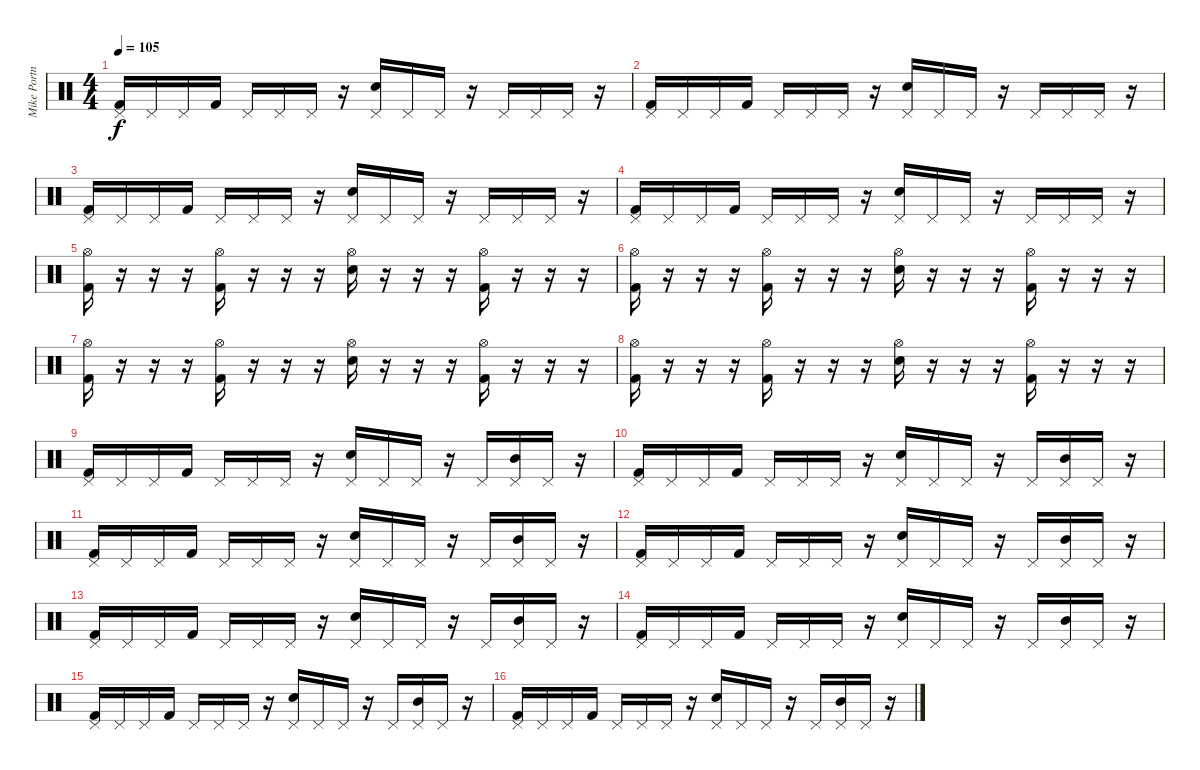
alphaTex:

\track ("Mike Portnoy" "Mike Portn") {instrument percussion}
\staff {score}
\articulation defaults
\ts (4 4)
\tempo 105
\clef neutral
\ks c
("Pedal Hi-Hat (hit)" "Kick (hit) 2").16{dy f} "Pedal Hi-Hat (hit)".16 "Pedal Hi-Hat (hit)".16 "Kick (hit) 2".16 "Pedal Hi-Hat (hit)".16 "Pedal Hi-Hat (hit)".16 "Pedal Hi-Hat (hit)".16 r.16 ("Pedal Hi-Hat (hit)" "Electric Snare (hit)").16 "Pedal Hi-Hat (hit)".16 "Pedal Hi-Hat (hit)".16 r.16 "Pedal Hi-Hat (hit)".16 "Pedal Hi-Hat (hit)".16 "Pedal Hi-Hat (hit)".16 r.16 |
("Pedal Hi-Hat (hit)" "Kick (hit) 2").16 "Pedal Hi-Hat (hit)".16 "Pedal Hi-Hat (hit)".16 "Kick (hit) 2".16 "Pedal Hi-Hat (hit)".16 "Pedal Hi-Hat (hit)".16 "Pedal Hi-Hat (hit)".16 r.16 ("Pedal Hi-Hat (hit)" "Electric Snare (hit)").16 "Pedal Hi-Hat (hit)".16 "Pedal Hi-Hat (hit)".16 r.16 "Pedal Hi-Hat (hit)".16 "Pedal Hi-Hat (hit)".16 "Pedal Hi-Hat (hit)".16 r.16 |
("Pedal Hi-Hat (hit)" "Kick (hit) 2").16 "Pedal Hi-Hat (hit)".16 "Pedal Hi-Hat (hit)".16 "Kick (hit) 2".16 "Pedal Hi-Hat (hit)".16 "Pedal Hi-Hat (hit)".16 "Pedal Hi-Hat (hit)".16 r.16 ("Pedal Hi-Hat (hit)" "Electric Snare (hit)").16 "Pedal Hi-Hat (hit)".16 "Pedal Hi-Hat (hit)".16 r.16 "Pedal Hi-Hat (hit)".16 "Pedal Hi-Hat (hit)".16 "Pedal Hi-Hat (hit)".16 r.16 |
("Pedal Hi-Hat (hit)" "Kick (hit) 2").16 "Pedal Hi-Hat (hit)".16 "Pedal Hi-Hat (hit)".16 "Kick (hit) 2".16 "Pedal Hi-Hat (hit)".16 "Pedal Hi-Hat (hit)".16 "Pedal Hi-Hat (hit)".16 r.16 ("Pedal Hi-Hat (hit)" "Electric Snare (hit)").16 "Pedal Hi-Hat (hit)".16 "Pedal Hi-Hat (hit)".16 r.16 "Pedal Hi-Hat (hit)".16 "Pedal Hi-Hat (hit)".16 "Pedal Hi-Hat (hit)".16 r.16 |
("Hi-Hat (open)" "Kick (hit) 2").16 r.16 r.16 r.16 ("Hi-Hat (open)" "Kick (hit) 2").16 r.16 r.16 r.16 ("Hi-Hat (open)" "Electric Snare (hit)").16 r.16 r.16 r.16 ("Hi-Hat (open)" "Kick (hit) 2").16 r.16 r.16 r.16 |
("Hi-Hat (open)" "Kick (hit) 2").16 r.16 r.16 r.16 ("Hi-Hat (open)" "Kick (hit) 2").16 r.16 r.16 r.16 ("Hi-Hat (open)" "Electric Snare (hit)").16 r.16 r.16 r.16 ("Hi-Hat (open)" "Kick (hit) 2").16 r.16 r.16 r.16 |
("Hi-Hat (open)" "Kick (hit) 2").16 r.16 r.16 r.16 ("Hi-Hat (open)" "Kick (hit) 2").16 r.16 r.16 r.16 ("Hi-Hat (open)" "Electric Snare (hit)").16 r.16 r.16 r.16 ("Hi-Hat (open)" "Kick (hit) 2").16 r.16 r.16 r.16 |
("Hi-Hat (open)" "Kick (hit) 2").16 r.16 r.16 r.16 ("Hi-Hat (open)" "Kick (hit) 2").16 r.16 r.16 r.16 ("Hi-Hat (open)" "Electric Snare (hit)").16 r.16 r.16 r.16 ("Hi-Hat (open)" "Kick (hit) 2").16 r.16 r.16 r.16 |
("Pedal Hi-Hat (hit)" "Kick (hit) 2").16 "Pedal Hi-Hat (hit)".16 "Pedal Hi-Hat (hit)".16 "Kick (hit) 2".16 "Pedal Hi-Hat (hit)".16 "Pedal Hi-Hat (hit)".16 "Pedal Hi-Hat (hit)".16 r.16 ("Pedal Hi-Hat (hit)" "Electric Snare (hit)").16 "Pedal Hi-Hat (hit)".16 "Pedal Hi-Hat (hit)".16 r.16 "Pedal Hi-Hat (hit)".16 ("Pedal Hi-Hat (hit)" "Mid Tom (hit)").16 "Pedal Hi-Hat (hit)".16 r.16 |
("Pedal Hi-Hat (hit)" "Kick (hit) 2").16 "Pedal Hi-Hat (hit)".16 "Pedal Hi-Hat (hit)".16 "Kick (hit) 2".16 "Pedal Hi-Hat (hit)".16 "Pedal Hi-Hat (hit)".16 "Pedal Hi-Hat (hit)".16 r.16 ("Pedal Hi-Hat (hit)" "Electric Snare (hit)").16 "Pedal Hi-Hat (hit)".16 "Pedal Hi-Hat (hit)".16 r.16 "Pedal Hi-Hat (hit)".16 ("Pedal Hi-Hat (hit)" "Mid Tom (hit)").16 "Pedal Hi-Hat (hit)".16 r.16 |
("Pedal Hi-Hat (hit)" "Kick (hit) 2").16 "Pedal Hi-Hat (hit)".16 "Pedal Hi-Hat (hit)".16 "Kick (hit) 2".16 "Pedal Hi-Hat (hit)".16 "Pedal Hi-Hat (hit)".16 "Pedal Hi-Hat (hit)".16 r.16 ("Pedal Hi-Hat (hit)" "Electric Snare (hit)").16 "Pedal Hi-Hat (hit)".16 "Pedal Hi-Hat (hit)".16 r.16 "Pedal Hi-Hat (hit)".16 ("Pedal Hi-Hat (hit)" "Mid Tom (hit)").16 "Pedal Hi-Hat (hit)".16 r.16 |
("Pedal Hi-Hat (hit)" "Kick (hit) 2").16 "Pedal Hi-Hat (hit)".16 "Pedal Hi-Hat (hit)".16 "Kick (hit) 2".16 "Pedal Hi-Hat (hit)".16 "Pedal Hi-Hat (hit)".16 "Pedal Hi-Hat (hit)".16 r.16 ("Pedal Hi-Hat (hit)" "Electric Snare (hit)").16 "Pedal Hi-Hat (hit)".16 "Pedal Hi-Hat (hit)".16 r.16 "Pedal Hi-Hat (hit)".16 ("Pedal Hi-Hat (hit)" "Mid Tom (hit)").16 "Pedal Hi-Hat (hit)".16 r.16 |
("Pedal Hi-Hat (hit)" "Kick (hit) 2").16 "Pedal Hi-Hat (hit)".16 "Pedal Hi-Hat (hit)".16 "Kick (hit) 2".16 "Pedal Hi-Hat (hit)".16 "Pedal Hi-Hat (hit)".16 "Pedal Hi-Hat (hit)".16 r.16 ("Pedal Hi-Hat (hit)" "Electric Snare (hit)").16 "Pedal Hi-Hat (hit)".16 "Pedal Hi-Hat (hit)".16 r.16 "Pedal Hi-Hat (hit)".16 ("Pedal Hi-Hat (hit)" "Mid Tom (hit)").16 "Pedal Hi-Hat (hit)".16 r.16 |
("Pedal Hi-Hat (hit)" "Kick (hit) 2").16 "Pedal Hi-Hat (hit)".16 "Pedal Hi-Hat (hit)".16 "Kick (hit) 2".16 "Pedal Hi-Hat (hit)".16 "Pedal Hi-Hat (hit)".16 "Pedal Hi-Hat (hit)".16 r.16 ("Pedal Hi-Hat (hit)" "Electric Snare (hit)").16 "Pedal Hi-Hat (hit)".16 "Pedal Hi-Hat (hit)".16 r.16 "Pedal Hi-Hat (hit)".16 ("Pedal Hi-Hat (hit)" "Mid Tom (hit)").16 "Pedal Hi-Hat (hit)".16 r.16 |
("Pedal Hi-Hat (hit)" "Kick (hit) 2").16 "Pedal Hi-Hat (hit)".16 "Pedal Hi-Hat (hit)".16 "Kick (hit) 2".16 "Pedal Hi-Hat (hit)".16 "Pedal Hi-Hat (hit)".16 "Pedal Hi-Hat (hit)".16 r.16 ("Pedal Hi-Hat (hit)" "Electric Snare (hit)").16 "Pedal Hi-Hat (hit)".16 "Pedal Hi-Hat (hit)".16 r.16 "Pedal Hi-Hat (hit)".16 ("Pedal Hi-Hat (hit)" "Mid Tom (hit)").16 "Pedal Hi-Hat (hit)".16 r.16 |
("Pedal Hi-Hat (hit)" "Kick (hit) 2").16 "Pedal Hi-Hat (hit)".16 "Pedal Hi-Hat (hit)".16 "Kick (hit) 2".16 "Pedal Hi-Hat (hit)".16 "Pedal Hi-Hat (hit)".16 "Pedal Hi-Hat (hit)".16 r.16 ("Pedal Hi-Hat (hit)" "Electric Snare (hit)").16 "Pedal Hi-Hat (hit)".16 "Pedal Hi-Hat (hit)".16 r.16 "Pedal Hi-Hat (hit)".16 ("Pedal Hi-Hat (hit)" "Mid Tom (hit)").16 "Pedal Hi-Hat (hit)".16 r.16
